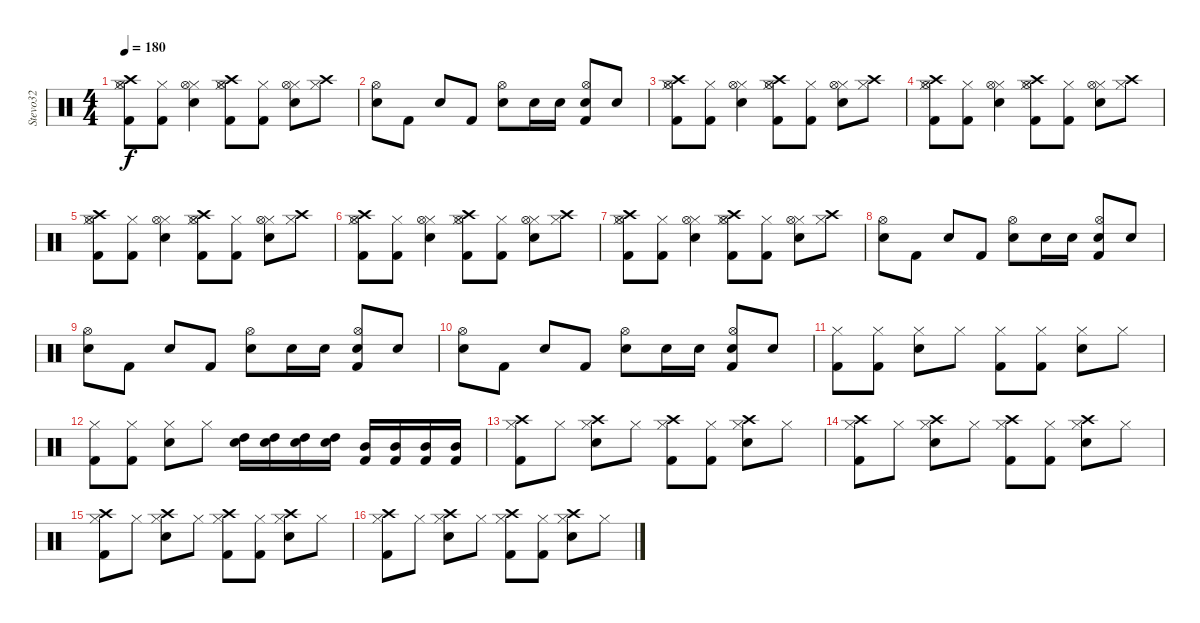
\track ("Stevo32" "Stevo32") {instrument percussion}
\staff {score}
\articulation defaults
\ts (4 4)
\tempo 180
\clef neutral
\ks c
("Hi-Hat (closed)" "Kick (hit) 2" "Hi-Hat (open)" "Crash high (hit)").8{dy f} ("Hi-Hat (closed)" "Kick (hit) 2").8 ("Hi-Hat (closed)" "Electric Snare (hit)" "Hi-Hat (open)").4 ("Hi-Hat (closed)" "Kick (hit) 2" "Hi-Hat (open)" "Crash high (hit)").8 ("Hi-Hat (closed)" "Kick (hit) 2").8 ("Hi-Hat (closed)" "Electric Snare (hit)" "Hi-Hat (open)").8 ("Hi-Hat (closed)" "Crash high (hit)").8 |
("Electric Snare (hit)" "Hi-Hat (open)").8 "Kick (hit) 2".8 "Electric Snare (hit)".8 "Kick (hit) 2".8 ("Electric Snare (hit)" "Hi-Hat (open)").8 "Electric Snare (hit)".16 "Electric Snare (hit)".16 ("Electric Snare (hit)" "Kick (hit) 2" "Hi-Hat (open)").8 "Electric Snare (hit)".8 |
("Hi-Hat (closed)" "Kick (hit) 2" "Hi-Hat (open)" "Crash high (hit)").8 ("Hi-Hat (closed)" "Kick (hit) 2").8 ("Hi-Hat (closed)" "Electric Snare (hit)" "Hi-Hat (open)").4 ("Hi-Hat (closed)" "Kick (hit) 2" "Hi-Hat (open)" "Crash high (hit)").8 ("Hi-Hat (closed)" "Kick (hit) 2").8 ("Hi-Hat (closed)" "Electric Snare (hit)" "Hi-Hat (open)").8 ("Hi-Hat (closed)" "Crash high (hit)").8 |
("Hi-Hat (closed)" "Kick (hit) 2" "Hi-Hat (open)" "Crash high (hit)").8 ("Hi-Hat (closed)" "Kick (hit) 2").8 ("Hi-Hat (closed)" "Electric Snare (hit)" "Hi-Hat (open)").4 ("Hi-Hat (closed)" "Kick (hit) 2" "Hi-Hat (open)" "Crash high (hit)").8 ("Hi-Hat (closed)" "Kick (hit) 2").8 ("Hi-Hat (closed)" "Electric Snare (hit)" "Hi-Hat (open)").8 ("Hi-Hat (closed)" "Crash high (hit)").8 |
("Hi-Hat (closed)" "Kick (hit) 2" "Hi-Hat (open)" "Crash high (hit)").8 ("Hi-Hat (closed)" "Kick (hit) 2").8 ("Hi-Hat (closed)" "Electric Snare (hit)" "Hi-Hat (open)").4 ("Hi-Hat (closed)" "Kick (hit) 2" "Hi-Hat (open)" "Crash high (hit)").8 ("Hi-Hat (closed)" "Kick (hit) 2").8 ("Hi-Hat (closed)" "Electric Snare (hit)" "Hi-Hat (open)").8 ("Hi-Hat (closed)" "Crash high (hit)").8 |
("Hi-Hat (closed)" "Kick (hit) 2" "Hi-Hat (open)" "Crash high (hit)").8 ("Hi-Hat (closed)" "Kick (hit) 2").8 ("Hi-Hat (closed)" "Electric Snare (hit)" "Hi-Hat (open)").4 ("Hi-Hat (closed)" "Kick (hit) 2" "Hi-Hat (open)" "Crash high (hit)").8 ("Hi-Hat (closed)" "Kick (hit) 2").8 ("Hi-Hat (closed)" "Electric Snare (hit)" "Hi-Hat (open)").8 ("Hi-Hat (closed)" "Crash high (hit)").8 |
("Hi-Hat (closed)" "Kick (hit) 2" "Hi-Hat (open)" "Crash high (hit)").8 ("Hi-Hat (closed)" "Kick (hit) 2").8 ("Hi-Hat (closed)" "Electric Snare (hit)" "Hi-Hat (open)").4 ("Hi-Hat (closed)" "Kick (hit) 2" "Hi-Hat (open)" "Crash high (hit)").8 ("Hi-Hat (closed)" "Kick (hit) 2").8 ("Hi-Hat (closed)" "Electric Snare (hit)" "Hi-Hat (open)").8 ("Hi-Hat (closed)" "Crash high (hit)").8 |
("Electric Snare (hit)" "Hi-Hat (open)").8 "Kick (hit) 2".8 "Electric Snare (hit)".8 "Kick (hit) 2".8 ("Electric Snare (hit)" "Hi-Hat (open)").8 "Electric Snare (hit)".16 "Electric Snare (hit)".16 ("Electric Snare (hit)" "Kick (hit) 2" "Hi-Hat (open)").8 "Electric Snare (hit)".8 |
("Electric Snare (hit)" "Hi-Hat (open)").8 "Kick (hit) 2".8 "Electric Snare (hit)".8 "Kick (hit) 2".8 ("Electric Snare (hit)" "Hi-Hat (open)").8 "Electric Snare (hit)".16 "Electric Snare (hit)".16 ("Electric Snare (hit)" "Kick (hit) 2" "Hi-Hat (open)").8 "Electric Snare (hit)".8 |
("Electric Snare (hit)" "Hi-Hat (open)").8 "Kick (hit) 2".8 "Electric Snare (hit)".8 "Kick (hit) 2".8 ("Electric Snare (hit)" "Hi-Hat (open)").8 "Electric Snare (hit)".16 "Electric Snare (hit)".16 ("Electric Snare (hit)" "Kick (hit) 2" "Hi-Hat (open)").8 "Electric Snare (hit)".8 |
("Hi-Hat (closed)" "Kick (hit) 2").8 ("Hi-Hat (closed)" "Kick (hit) 2").8 ("Hi-Hat (closed)" "Electric Snare (hit)").8 "Hi-Hat (closed)".8 ("Hi-Hat (closed)" "Kick (hit) 2").8 ("Hi-Hat (closed)" "Kick (hit) 2").8 ("Hi-Hat (closed)" "Electric Snare (hit)").8 "Hi-Hat (closed)".8 |
("Hi-Hat (closed)" "Kick (hit) 2").8 ("Hi-Hat (closed)" "Kick (hit) 2").8 ("Hi-Hat (closed)" "Electric Snare (hit)").8 "Hi-Hat (closed)".8 ("Electric Snare (hit)" "High Tom (hit)").16 ("Electric Snare (hit)" "High Tom (hit)").16 ("Electric Snare (hit)" "High Tom (hit)").16 ("Electric Snare (hit)" "High Tom (hit)").16 ("Mid Tom (hit)" "Kick (hit) 2").16 ("Mid Tom (hit)" "Kick (hit) 2").16 ("Mid Tom (hit)" "Kick (hit) 2").16 ("Mid Tom (hit)" "Kick (hit) 2").16 |
("Hi-Hat (closed)" "Kick (hit) 2" "Crash high (hit)").8 "Hi-Hat (closed)".8 ("Hi-Hat (closed)" "Electric Snare (hit)" "Crash high (hit)").8 "Hi-Hat (closed)".8 ("Hi-Hat (closed)" "Kick (hit) 2" "Crash high (hit)").8 ("Hi-Hat (closed)" "Kick (hit) 2").8 ("Hi-Hat (closed)" "Electric Snare (hit)" "Crash high (hit)").8 "Hi-Hat (closed)".8 |
("Hi-Hat (closed)" "Kick (hit) 2" "Crash high (hit)").8 "Hi-Hat (closed)".8 ("Hi-Hat (closed)" "Electric Snare (hit)" "Crash high (hit)").8 "Hi-Hat (closed)".8 ("Hi-Hat (closed)" "Kick (hit) 2" "Crash high (hit)").8 ("Hi-Hat (closed)" "Kick (hit) 2").8 ("Hi-Hat (closed)" "Electric Snare (hit)" "Crash high (hit)").8 "Hi-Hat (closed)".8 |
("Hi-Hat (closed)" "Kick (hit) 2" "Crash high (hit)").8 "Hi-Hat (closed)".8 ("Hi-Hat (closed)" "Electric Snare (hit)" "Crash high (hit)").8 "Hi-Hat (closed)".8 ("Hi-Hat (closed)" "Kick (hit) 2" "Crash high (hit)").8 ("Hi-Hat (closed)" "Kick (hit) 2").8 ("Hi-Hat (closed)" "Electric Snare (hit)" "Crash high (hit)").8 "Hi-Hat (closed)".8 |
("Hi-Hat (closed)" "Kick (hit) 2" "Crash high (hit)").8 "Hi-Hat (closed)".8 ("Hi-Hat (closed)" "Electric Snare (hit)" "Crash high (hit)").8 "Hi-Hat (closed)".8 ("Hi-Hat (closed)" "Kick (hit) 2" "Crash high (hit)").8 ("Hi-Hat (closed)" "Kick (hit) 2").8 ("Hi-Hat (closed)" "Electric Snare (hit)" "Crash high (hit)").8 "Hi-Hat (closed)".8
